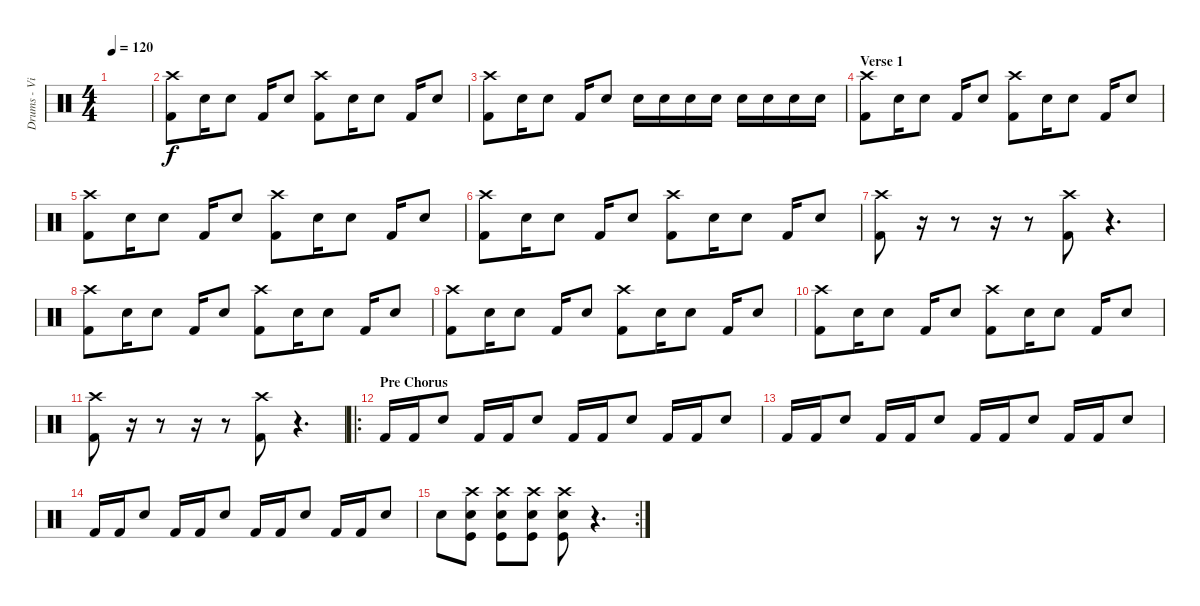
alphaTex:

\track ("Drums - Vicko" "Drums - Vi") {instrument percussion}
\staff {score}
\articulation defaults
\ts (4 4)
\tempo 120
\clef neutral
\ks c
|
("Kick (hit) 2" "Crash high (hit)").8 "Snare (hit) 2".16 "Snare (hit) 2".8 "Kick (hit) 2".16 "Snare (hit) 2".8 ("Kick (hit) 2" "Crash high (hit)").8 "Snare (hit) 2".16 "Snare (hit) 2".8 "Kick (hit) 2".16 "Snare (hit) 2".8 |
("Kick (hit) 2" "Crash high (hit)").8 "Snare (hit) 2".16 "Snare (hit) 2".8 "Kick (hit) 2".16 "Snare (hit) 2".8 "Snare (hit) 2".16 "Snare (hit) 2".16 "Snare (hit) 2".16 "Snare (hit) 2".16 "Snare (hit) 2".16 "Snare (hit) 2".16 "Snare (hit) 2".16 "Snare (hit) 2".16 |
\section ("" "Verse 1")
("Kick (hit) 2" "Crash high (hit)").8 "Snare (hit) 2".16 "Snare (hit) 2".8 "Kick (hit) 2".16 "Snare (hit) 2".8 ("Kick (hit) 2" "Crash high (hit)").8 "Snare (hit) 2".16 "Snare (hit) 2".8 "Kick (hit) 2".16 "Snare (hit) 2".8 |
("Kick (hit) 2" "Crash high (hit)").8 "Snare (hit) 2".16 "Snare (hit) 2".8 "Kick (hit) 2".16 "Snare (hit) 2".8 ("Kick (hit) 2" "Crash high (hit)").8 "Snare (hit) 2".16 "Snare (hit) 2".8 "Kick (hit) 2".16 "Snare (hit) 2".8 |
("Kick (hit) 2" "Crash high (hit)").8 "Snare (hit) 2".16 "Snare (hit) 2".8 "Kick (hit) 2".16 "Snare (hit) 2".8 ("Kick (hit) 2" "Crash high (hit)").8 "Snare (hit) 2".16 "Snare (hit) 2".8 "Kick (hit) 2".16 "Snare (hit) 2".8 |
("Crash high (hit)" "Kick (hit) 2").8 r.16 r.8 r.16 r.8 ("Crash high (hit)" "Kick (hit) 2").8 r.4{d} |
("Kick (hit) 2" "Crash high (hit)").8 "Snare (hit) 2".16 "Snare (hit) 2".8 "Kick (hit) 2".16 "Snare (hit) 2".8 ("Kick (hit) 2" "Crash high (hit)").8 "Snare (hit) 2".16 "Snare (hit) 2".8 "Kick (hit) 2".16 "Snare (hit) 2".8 |
("Kick (hit) 2" "Crash high (hit)").8 "Snare (hit) 2".16 "Snare (hit) 2".8 "Kick (hit) 2".16 "Snare (hit) 2".8 ("Kick (hit) 2" "Crash high (hit)").8 "Snare (hit) 2".16 "Snare (hit) 2".8 "Kick (hit) 2".16 "Snare (hit) 2".8 |
("Kick (hit) 2" "Crash high (hit)").8 "Snare (hit) 2".16 "Snare (hit) 2".8 "Kick (hit) 2".16 "Snare (hit) 2".8 ("Kick (hit) 2" "Crash high (hit)").8 "Snare (hit) 2".16 "Snare (hit) 2".8 "Kick (hit) 2".16 "Snare (hit) 2".8 |
("Crash high (hit)" "Kick (hit) 2").8 r.16 r.8 r.16 r.8 ("Crash high (hit)" "Kick (hit) 2").8 r.4{d} |
\ro
\section ("" "Pre Chorus")
"Kick (hit) 2".16 "Kick (hit) 2".16 "Snare (hit) 2".8 "Kick (hit) 2".16 "Kick (hit) 2".16 "Snare (hit) 2".8 "Kick (hit) 2".16 "Kick (hit) 2".16 "Snare (hit) 2".8 "Kick (hit) 2".16 "Kick (hit) 2".16 "Snare (hit) 2".8 |
"Kick (hit) 2".16 "Kick (hit) 2".16 "Snare (hit) 2".8 "Kick (hit) 2".16 "Kick (hit) 2".16 "Snare (hit) 2".8 "Kick (hit) 2".16 "Kick (hit) 2".16 "Snare (hit) 2".8 "Kick (hit) 2".16 "Kick (hit) 2".16 "Snare (hit) 2".8 |
"Kick (hit) 2".16 "Kick (hit) 2".16 "Snare (hit) 2".8 "Kick (hit) 2".16 "Kick (hit) 2".16 "Snare (hit) 2".8 "Kick (hit) 2".16 "Kick (hit) 2".16 "Snare (hit) 2".8 "Kick (hit) 2".16 "Kick (hit) 2".16 "Snare (hit) 2".8 |
\rc 2 "Snare (hit) 2".8
("Crash high (hit)" "Snare (hit) 2" "Kick (hit)").8 ("Crash high (hit)" "Snare (hit) 2" "Kick (hit)").8 ("Crash high (hit)" "Snare (hit) 2" "Kick (hit)").8 ("Crash high (hit)" "Snare (hit) 2" "Kick (hit)").8 r.4{d}
